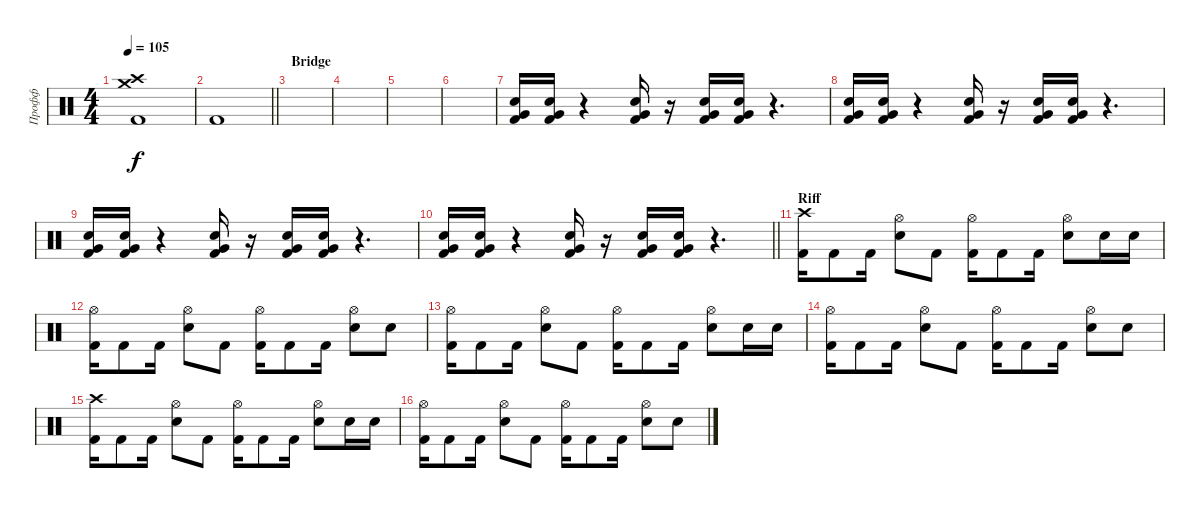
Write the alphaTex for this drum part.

\track ("Профф" "Профф") {instrument percussion}
\staff {score}
\articulation defaults
\ts (4 4)
\tempo 105
\clef neutral
\ks c
("Crash high (hit)" "Crash medium (hit)" "Kick (hit) 2").1{dy f} |
\barLineRight lightlight "Kick (hit) 2".1
|
\section ("" "Bridge")
|
|
|
|
("Very Low Tom (hit)" "Snare (hit) 2" "Kick (hit) 2").16 ("Very Low Tom (hit)" "Snare (hit) 2" "Kick (hit) 2").16 r.4 ("Very Low Tom (hit)" "Snare (hit) 2" "Kick (hit) 2").16 r.16 ("Very Low Tom (hit)" "Snare (hit) 2" "Kick (hit) 2").16 ("Very Low Tom (hit)" "Snare (hit) 2" "Kick (hit) 2").16 r.4{d} |
("Very Low Tom (hit)" "Snare (hit) 2" "Kick (hit) 2").16 ("Very Low Tom (hit)" "Snare (hit) 2" "Kick (hit) 2").16 r.4 ("Very Low Tom (hit)" "Snare (hit) 2" "Kick (hit) 2").16 r.16 ("Very Low Tom (hit)" "Snare (hit) 2" "Kick (hit) 2").16 ("Very Low Tom (hit)" "Snare (hit) 2" "Kick (hit) 2").16 r.4{d} |
("Very Low Tom (hit)" "Snare (hit) 2" "Kick (hit) 2").16 ("Very Low Tom (hit)" "Snare (hit) 2" "Kick (hit) 2").16 r.4 ("Very Low Tom (hit)" "Snare (hit) 2" "Kick (hit) 2").16 r.16 ("Very Low Tom (hit)" "Snare (hit) 2" "Kick (hit) 2").16 ("Very Low Tom (hit)" "Snare (hit) 2" "Kick (hit) 2").16 r.4{d} |
\barLineRight lightlight
("Very Low Tom (hit)" "Snare (hit) 2" "Kick (hit) 2").16 ("Very Low Tom (hit)" "Snare (hit) 2" "Kick (hit) 2").16 r.4 ("Very Low Tom (hit)" "Snare (hit) 2" "Kick (hit) 2").16 r.16 ("Very Low Tom (hit)" "Snare (hit) 2" "Kick (hit) 2").16 ("Very Low Tom (hit)" "Snare (hit) 2" "Kick (hit) 2").16 r.4{d} |
\section ("" "Riff")
("Crash high (hit)" "Kick (hit) 2").16 "Kick (hit) 2".8 "Kick (hit) 2".16 ("Hi-Hat (open)" "Snare (hit) 2").8 "Kick (hit) 2".8 ("Hi-Hat (open)" "Kick (hit) 2").16 "Kick (hit) 2".8 "Kick (hit) 2".16 ("Hi-Hat (open)" "Snare (hit) 2").8 "Snare (hit) 2".16 "Snare (hit) 2".16 |
("Hi-Hat (open)" "Kick (hit) 2").16 "Kick (hit) 2".8 "Kick (hit) 2".16 ("Hi-Hat (open)" "Snare (hit) 2").8 "Kick (hit) 2".8 ("Hi-Hat (open)" "Kick (hit) 2").16 "Kick (hit) 2".8 "Kick (hit) 2".16 ("Hi-Hat (open)" "Snare (hit) 2").8 "Snare (hit) 2".8 |
("Hi-Hat (open)" "Kick (hit) 2").16 "Kick (hit) 2".8 "Kick (hit) 2".16 ("Hi-Hat (open)" "Snare (hit) 2").8 "Kick (hit) 2".8 ("Hi-Hat (open)" "Kick (hit) 2").16 "Kick (hit) 2".8 "Kick (hit) 2".16 ("Hi-Hat (open)" "Snare (hit) 2").8 "Snare (hit) 2".16 "Snare (hit) 2".16 |
("Hi-Hat (open)" "Kick (hit) 2").16 "Kick (hit) 2".8 "Kick (hit) 2".16 ("Hi-Hat (open)" "Snare (hit) 2").8 "Kick (hit) 2".8 ("Hi-Hat (open)" "Kick (hit) 2").16 "Kick (hit) 2".8 "Kick (hit) 2".16 ("Hi-Hat (open)" "Snare (hit) 2").8 "Snare (hit) 2".8 |
("Crash high (hit)" "Kick (hit) 2").16 "Kick (hit) 2".8 "Kick (hit) 2".16 ("Hi-Hat (open)" "Snare (hit) 2").8 "Kick (hit) 2".8 ("Hi-Hat (open)" "Kick (hit) 2").16 "Kick (hit) 2".8 "Kick (hit) 2".16 ("Hi-Hat (open)" "Snare (hit) 2").8 "Snare (hit) 2".16 "Snare (hit) 2".16 |
("Hi-Hat (open)" "Kick (hit) 2").16 "Kick (hit) 2".8 "Kick (hit) 2".16 ("Hi-Hat (open)" "Snare (hit) 2").8 "Kick (hit) 2".8 ("Hi-Hat (open)" "Kick (hit) 2").16 "Kick (hit) 2".8 "Kick (hit) 2".16 ("Hi-Hat (open)" "Snare (hit) 2").8 "Snare (hit) 2".8
